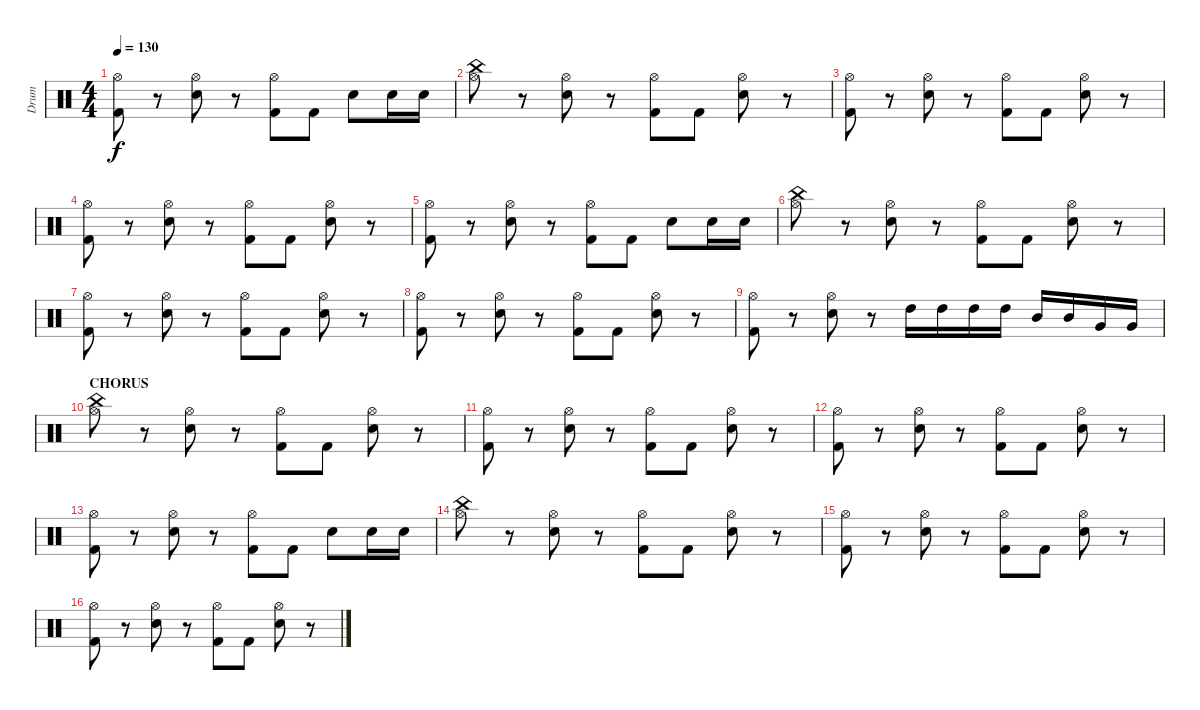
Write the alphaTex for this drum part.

\track ("Drum" "Drum") {instrument percussion}
\staff {score}
\articulation defaults
\ts (4 4)
\tempo 130
\clef neutral
\ks c
("Hi-Hat (open)" "Kick (hit) 2").8{dy f} r.8 ("Hi-Hat (open)" "Electric Snare (hit)").8 r.8 ("Hi-Hat (open)" "Kick (hit) 2").8 "Kick (hit) 2".8 "Electric Snare (hit)".8 "Electric Snare (hit)".16 "Electric Snare (hit)".16 |
("Hi-Hat (open)" "China (hit)").8 r.8 ("Hi-Hat (open)" "Electric Snare (hit)").8 r.8 ("Hi-Hat (open)" "Kick (hit) 2").8 "Kick (hit) 2".8 ("Hi-Hat (open)" "Electric Snare (hit)").8 r.8 |
("Hi-Hat (open)" "Kick (hit) 2").8 r.8 ("Hi-Hat (open)" "Electric Snare (hit)").8 r.8 ("Hi-Hat (open)" "Kick (hit) 2").8 "Kick (hit) 2".8 ("Hi-Hat (open)" "Electric Snare (hit)").8 r.8 |
("Hi-Hat (open)" "Kick (hit) 2").8 r.8 ("Hi-Hat (open)" "Electric Snare (hit)").8 r.8 ("Hi-Hat (open)" "Kick (hit) 2").8 "Kick (hit) 2".8 ("Hi-Hat (open)" "Electric Snare (hit)").8 r.8 |
("Hi-Hat (open)" "Kick (hit) 2").8 r.8 ("Hi-Hat (open)" "Electric Snare (hit)").8 r.8 ("Hi-Hat (open)" "Kick (hit) 2").8 "Kick (hit) 2".8 "Electric Snare (hit)".8 "Electric Snare (hit)".16 "Electric Snare (hit)".16 |
("Hi-Hat (open)" "China (hit)").8 r.8 ("Hi-Hat (open)" "Electric Snare (hit)").8 r.8 ("Hi-Hat (open)" "Kick (hit) 2").8 "Kick (hit) 2".8 ("Hi-Hat (open)" "Electric Snare (hit)").8 r.8 |
("Hi-Hat (open)" "Kick (hit) 2").8 r.8 ("Hi-Hat (open)" "Electric Snare (hit)").8 r.8 ("Hi-Hat (open)" "Kick (hit) 2").8 "Kick (hit) 2".8 ("Hi-Hat (open)" "Electric Snare (hit)").8 r.8 |
("Hi-Hat (open)" "Kick (hit) 2").8 r.8 ("Hi-Hat (open)" "Electric Snare (hit)").8 r.8 ("Hi-Hat (open)" "Kick (hit) 2").8 "Kick (hit) 2".8 ("Hi-Hat (open)" "Electric Snare (hit)").8 r.8 |
("Hi-Hat (open)" "Kick (hit) 2").8 r.8 ("Hi-Hat (open)" "Electric Snare (hit)").8 r.8 "High Tom (hit)".16 "High Tom (hit)".16 "High Tom (hit)".16 "High Tom (hit)".16 "Mid Tom (hit)".16 "Mid Tom (hit)".16 "Very Low Tom (hit)".16 "Very Low Tom (hit)".16 |
\section ("" "CHORUS")
("Hi-Hat (open)" "China (hit)").8 r.8 ("Hi-Hat (open)" "Electric Snare (hit)").8 r.8 ("Hi-Hat (open)" "Kick (hit) 2").8 "Kick (hit) 2".8 ("Hi-Hat (open)" "Electric Snare (hit)").8 r.8 |
("Hi-Hat (open)" "Kick (hit) 2").8 r.8 ("Hi-Hat (open)" "Electric Snare (hit)").8 r.8 ("Hi-Hat (open)" "Kick (hit) 2").8 "Kick (hit) 2".8 ("Hi-Hat (open)" "Electric Snare (hit)").8 r.8 |
("Hi-Hat (open)" "Kick (hit) 2").8 r.8 ("Hi-Hat (open)" "Electric Snare (hit)").8 r.8 ("Hi-Hat (open)" "Kick (hit) 2").8 "Kick (hit) 2".8 ("Hi-Hat (open)" "Electric Snare (hit)").8 r.8 |
("Hi-Hat (open)" "Kick (hit) 2").8 r.8 ("Hi-Hat (open)" "Electric Snare (hit)").8 r.8 ("Hi-Hat (open)" "Kick (hit) 2").8 "Kick (hit) 2".8 "Electric Snare (hit)".8 "Electric Snare (hit)".16 "Electric Snare (hit)".16 |
("Hi-Hat (open)" "China (hit)").8 r.8 ("Hi-Hat (open)" "Electric Snare (hit)").8 r.8 ("Hi-Hat (open)" "Kick (hit) 2").8 "Kick (hit) 2".8 ("Hi-Hat (open)" "Electric Snare (hit)").8 r.8 |
("Hi-Hat (open)" "Kick (hit) 2").8 r.8 ("Hi-Hat (open)" "Electric Snare (hit)").8 r.8 ("Hi-Hat (open)" "Kick (hit) 2").8 "Kick (hit) 2".8 ("Hi-Hat (open)" "Electric Snare (hit)").8 r.8 |
("Hi-Hat (open)" "Kick (hit) 2").8 r.8 ("Hi-Hat (open)" "Electric Snare (hit)").8 r.8 ("Hi-Hat (open)" "Kick (hit) 2").8 "Kick (hit) 2".8 ("Hi-Hat (open)" "Electric Snare (hit)").8 r.8
